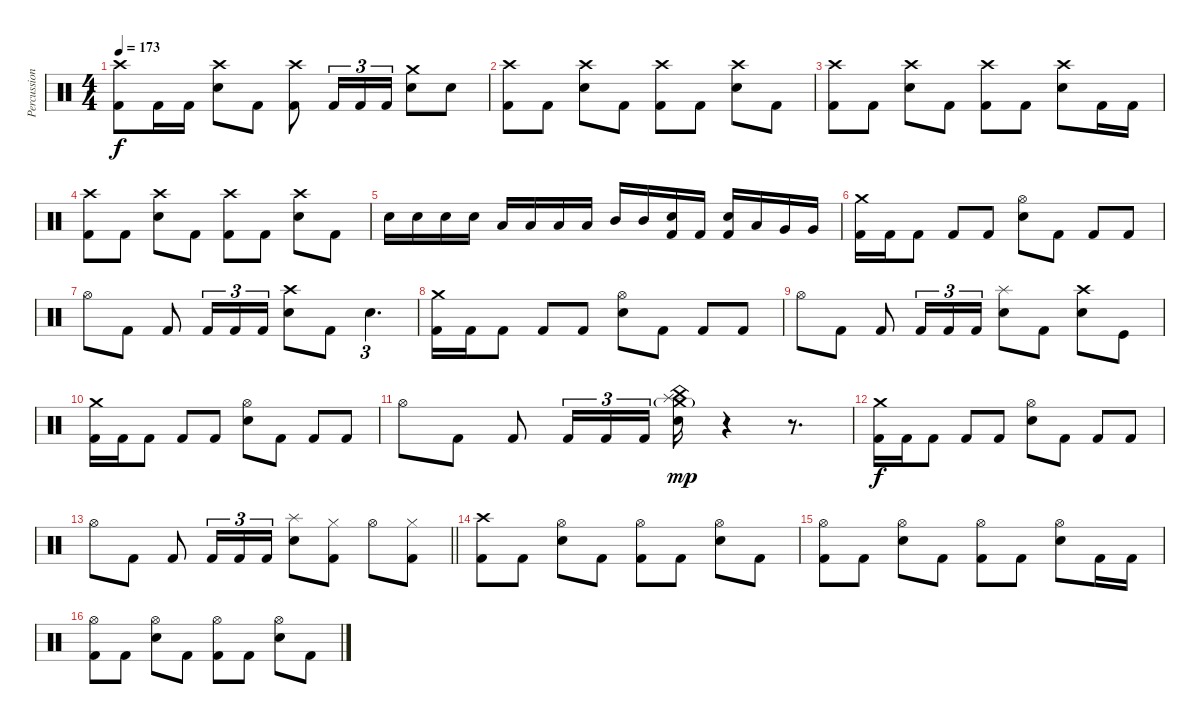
\track ("Percussion" "Percussion") {instrument percussion}
\staff {score}
\articulation defaults
\ts (4 4)
\tempo 173
\clef neutral
\ks c
("Crash high (hit)" "Kick (hit) 2").8{dy f} "Kick (hit) 2".16 "Kick (hit) 2".16 ("Crash high (hit)" "Electric Snare (hit)").8 "Kick (hit) 2".8 ("Crash high (hit)" "Kick (hit) 2").8 "Kick (hit) 2".16{tu (3 2)} "Kick (hit) 2".16{tu (3 2)} "Kick (hit) 2".16{tu (3 2)} ("Crash medium (hit)" "Electric Snare (hit)").8 "Electric Snare (hit)".8 |
("Crash high (hit)" "Kick (hit) 2").8 "Kick (hit) 2".8 ("Crash high (hit)" "Electric Snare (hit)").8 "Kick (hit) 2".8 ("Crash high (hit)" "Kick (hit) 2").8 "Kick (hit) 2".8 ("Crash high (hit)" "Electric Snare (hit)").8 "Kick (hit) 2".8 |
("Crash high (hit)" "Kick (hit) 2").8 "Kick (hit) 2".8 ("Crash high (hit)" "Electric Snare (hit)").8 "Kick (hit) 2".8 ("Crash high (hit)" "Kick (hit) 2").8 "Kick (hit) 2".8 ("Crash high (hit)" "Electric Snare (hit)").8 "Kick (hit) 2".16 "Kick (hit) 2".16 |
("Crash high (hit)" "Kick (hit) 2").8 "Kick (hit) 2".8 ("Crash high (hit)" "Electric Snare (hit)").8 "Kick (hit) 2".8 ("Crash high (hit)" "Kick (hit) 2").8 "Kick (hit) 2".8 ("Crash high (hit)" "Electric Snare (hit)").8 "Kick (hit) 2".8 |
"Electric Snare (hit)".16 "Electric Snare (hit)".16 "Electric Snare (hit)".16 "Electric Snare (hit)".16 "Low Tom (hit)".16 "Low Tom (hit)".16 "Low Tom (hit)".16 "Low Tom (hit)".16 "Mid Tom (hit)".16 "Mid Tom (hit)".16 ("Electric Snare (hit)" "Kick (hit) 2").16 "Kick (hit) 2".16 ("Electric Snare (hit)" "Kick (hit) 2").16 "Low Floor Tom (hit)".16 "Very Low Tom (hit)".16 "Very Low Tom (hit)".16 |
("Crash medium (hit)" "Kick (hit) 2").16 "Kick (hit) 2".16 "Kick (hit) 2".8 "Kick (hit) 2".8 "Kick (hit) 2".8 ("Hi-Hat (open)" "Electric Snare (hit)").8 "Kick (hit) 2".8 "Kick (hit) 2".8 "Kick (hit) 2".8 |
"Hi-Hat (open)".8 "Kick (hit) 2".8 "Kick (hit) 2".8 "Kick (hit) 2".16{tu (3 2)} "Kick (hit) 2".16{tu (3 2)} "Kick (hit) 2".16{tu (3 2)} ("Crash high (hit)" "Electric Snare (hit)").8 "Kick (hit) 2".8 "Electric Snare (hit)".4{d tu (3 2)} |
("Crash medium (hit)" "Kick (hit) 2").16 "Kick (hit) 2".16 "Kick (hit) 2".8 "Kick (hit) 2".8 "Kick (hit) 2".8 ("Hi-Hat (open)" "Electric Snare (hit)").8 "Kick (hit) 2".8 "Kick (hit) 2".8 "Kick (hit) 2".8 |
"Hi-Hat (open)".8 "Kick (hit) 2".8 "Kick (hit) 2".8 "Kick (hit) 2".16{tu (3 2)} "Kick (hit) 2".16{tu (3 2)} "Kick (hit) 2".16{tu (3 2)} ("Splash (hit)" "Electric Snare (hit)").8 "Kick (hit) 2".8 ("Crash high (hit)" "Electric Snare (hit)").8 "Kick (hit)".8 |
("Crash medium (hit)" "Kick (hit) 2").16 "Kick (hit) 2".16 "Kick (hit) 2".8 "Kick (hit) 2".8 "Kick (hit) 2".8 ("Hi-Hat (open)" "Electric Snare (hit)").8 "Kick (hit) 2".8 "Kick (hit) 2".8 "Kick (hit) 2".8 |
"Hi-Hat (open)".8 "Kick (hit) 2".8 "Kick (hit) 2".8 "Kick (hit) 2".16{tu (3 2)} "Kick (hit) 2".16{tu (3 2)} "Kick (hit) 2".16{tu (3 2)} ("Crash medium (hit)"{g} "Splash (hit)" "Electric Snare (hit)" "China (hit)").16{dy mp} r.4 r.8{d} |
("Crash medium (hit)" "Kick (hit) 2").16{dy f} "Kick (hit) 2".16 "Kick (hit) 2".8 "Kick (hit) 2".8 "Kick (hit) 2".8 ("Hi-Hat (open)" "Electric Snare (hit)").8 "Kick (hit) 2".8 "Kick (hit) 2".8 "Kick (hit) 2".8 |
\barLineRight lightlight "Hi-Hat (open)".8 "Kick (hit) 2".8 "Kick (hit) 2".8 "Kick (hit) 2".16{tu (3 2)} "Kick (hit) 2".16{tu (3 2)} "Kick (hit) 2".16{tu (3 2)}
("Splash (hit)" "Electric Snare (hit)").8 ("Hi-Hat (closed)" "Kick (hit) 2").8 "Hi-Hat (open)".8 ("Hi-Hat (closed)" "Kick (hit) 2").8 |
("Crash high (hit)" "Kick (hit) 2").8 "Kick (hit) 2".8 ("Hi-Hat (open)" "Electric Snare (hit)").8 "Kick (hit) 2".8 ("Hi-Hat (open)" "Kick (hit) 2").8 "Kick (hit) 2".8 ("Hi-Hat (open)" "Electric Snare (hit)").8 "Kick (hit) 2".8 |
("Hi-Hat (open)" "Kick (hit) 2").8 "Kick (hit) 2".8 ("Hi-Hat (open)" "Electric Snare (hit)").8 "Kick (hit) 2".8 ("Hi-Hat (open)" "Kick (hit) 2").8 "Kick (hit) 2".8 ("Hi-Hat (open)" "Electric Snare (hit)").8 "Kick (hit) 2".16 "Kick (hit) 2".16 |
("Hi-Hat (open)" "Kick (hit) 2").8 "Kick (hit) 2".8 ("Hi-Hat (open)" "Electric Snare (hit)").8 "Kick (hit) 2".8 ("Hi-Hat (open)" "Kick (hit) 2").8 "Kick (hit) 2".8 ("Hi-Hat (open)" "Electric Snare (hit)").8 "Kick (hit) 2".8
